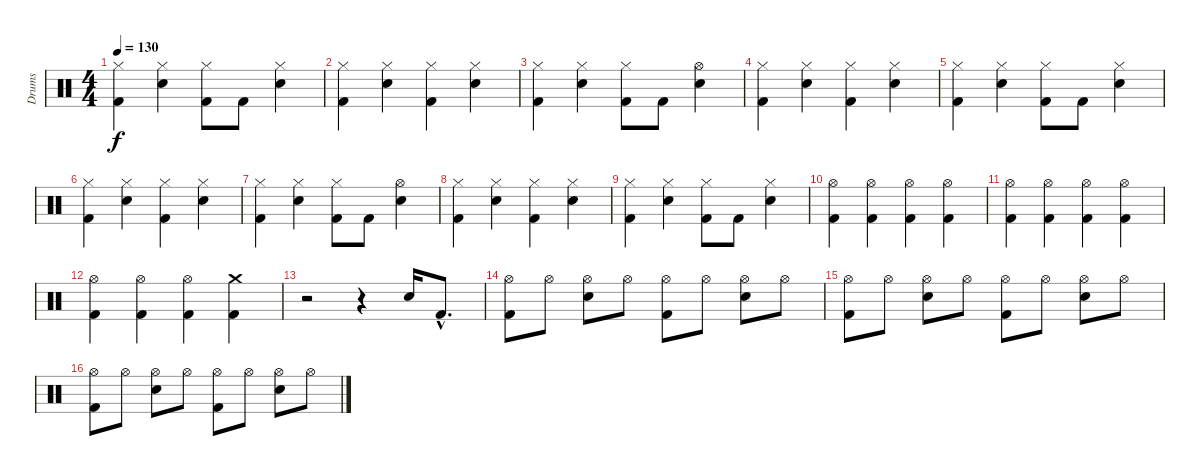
\track ("Drums" "Drums") {instrument percussion}
\staff {score}
\articulation defaults
\ts (4 4)
\tempo 130
\clef neutral
\ks c
("Hi-Hat (closed)" "Kick (hit) 2").4{dy f} ("Hi-Hat (closed)" "Snare (hit) 2").4 ("Hi-Hat (closed)" "Kick (hit) 2").8 "Kick (hit) 2".8 ("Hi-Hat (closed)" "Snare (hit) 2").4 |
("Hi-Hat (closed)" "Kick (hit) 2").4 ("Hi-Hat (closed)" "Snare (hit) 2").4 ("Hi-Hat (closed)" "Kick (hit) 2").4 ("Hi-Hat (closed)" "Snare (hit) 2").4 |
("Hi-Hat (closed)" "Kick (hit) 2").4 ("Hi-Hat (closed)" "Snare (hit) 2").4 ("Hi-Hat (closed)" "Kick (hit) 2").8 "Kick (hit) 2".8 ("Hi-Hat (open)" "Snare (hit) 2").4 |
("Hi-Hat (closed)" "Kick (hit) 2").4 ("Hi-Hat (closed)" "Snare (hit) 2").4 ("Hi-Hat (closed)" "Kick (hit) 2").4 ("Hi-Hat (closed)" "Snare (hit) 2").4 |
("Hi-Hat (closed)" "Kick (hit) 2").4 ("Hi-Hat (closed)" "Snare (hit) 2").4 ("Hi-Hat (closed)" "Kick (hit) 2").8 "Kick (hit) 2".8 ("Hi-Hat (closed)" "Snare (hit) 2").4 |
("Hi-Hat (closed)" "Kick (hit) 2").4 ("Hi-Hat (closed)" "Snare (hit) 2").4 ("Hi-Hat (closed)" "Kick (hit) 2").4 ("Hi-Hat (closed)" "Snare (hit) 2").4 |
("Hi-Hat (closed)" "Kick (hit) 2").4 ("Hi-Hat (closed)" "Snare (hit) 2").4 ("Hi-Hat (closed)" "Kick (hit) 2").8 "Kick (hit) 2".8 ("Hi-Hat (open)" "Snare (hit) 2").4 |
("Hi-Hat (closed)" "Kick (hit) 2").4 ("Hi-Hat (closed)" "Snare (hit) 2").4 ("Hi-Hat (closed)" "Kick (hit) 2").4 ("Hi-Hat (closed)" "Snare (hit) 2").4 |
("Hi-Hat (closed)" "Kick (hit) 2").4 ("Hi-Hat (closed)" "Snare (hit) 2").4 ("Hi-Hat (closed)" "Kick (hit) 2").8 "Kick (hit) 2".8 ("Hi-Hat (closed)" "Snare (hit) 2").4 |
("Hi-Hat (open)" "Kick (hit) 2").4 ("Hi-Hat (open)" "Kick (hit) 2").4 ("Hi-Hat (open)" "Kick (hit) 2").4 ("Hi-Hat (open)" "Kick (hit) 2").4 |
("Hi-Hat (open)" "Kick (hit) 2").4 ("Hi-Hat (open)" "Kick (hit) 2").4 ("Hi-Hat (open)" "Kick (hit) 2").4 ("Hi-Hat (open)" "Kick (hit) 2").4 |
("Hi-Hat (open)" "Kick (hit) 2").4 ("Hi-Hat (open)" "Kick (hit) 2").4 ("Hi-Hat (open)" "Kick (hit) 2").4 ("Crash medium (hit)" "Kick (hit) 2").4 |
r.2 r.4 "Snare (hit) 2".16 "Kick (hit) 2"{hac}.8{d} |
("Hi-Hat (open)" "Kick (hit) 2").8 "Hi-Hat (open)".8 ("Hi-Hat (open)" "Snare (hit) 2").8 "Hi-Hat (open)".8 ("Hi-Hat (open)" "Kick (hit) 2").8 "Hi-Hat (open)".8 ("Hi-Hat (open)" "Snare (hit) 2").8 "Hi-Hat (open)".8 |
("Hi-Hat (open)" "Kick (hit) 2").8 "Hi-Hat (open)".8 ("Hi-Hat (open)" "Snare (hit) 2").8 "Hi-Hat (open)".8 ("Hi-Hat (open)" "Kick (hit) 2").8 "Hi-Hat (open)".8 ("Hi-Hat (open)" "Snare (hit) 2").8 "Hi-Hat (open)".8 |
("Hi-Hat (open)" "Kick (hit) 2").8 "Hi-Hat (open)".8 ("Hi-Hat (open)" "Snare (hit) 2").8 "Hi-Hat (open)".8 ("Hi-Hat (open)" "Kick (hit) 2").8 "Hi-Hat (open)".8 ("Hi-Hat (open)" "Snare (hit) 2").8 "Hi-Hat (open)".8
